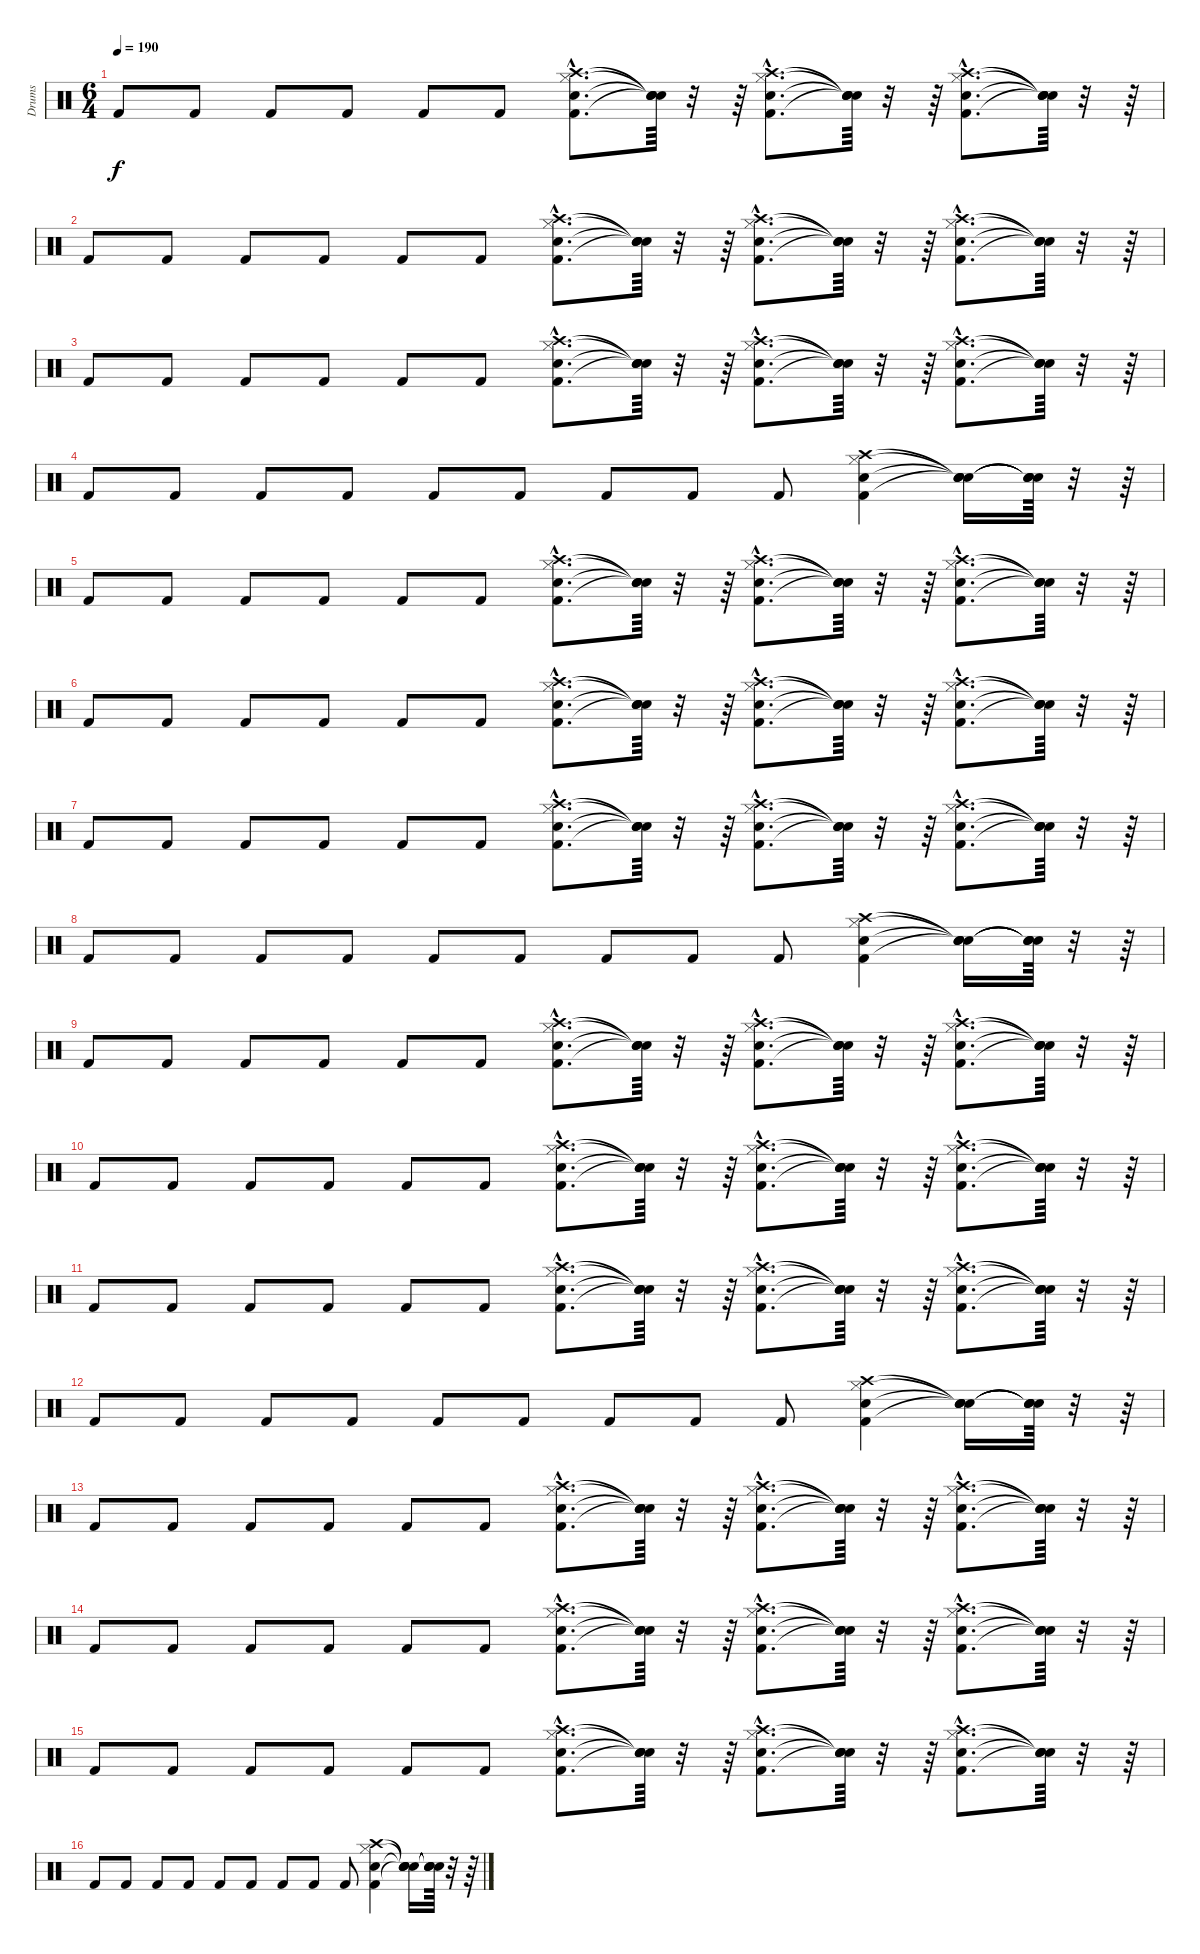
\track ("Drums" "Drums") {instrument percussion}
\staff {score}
\articulation defaults
\ts (6 4)
\tempo 190
\clef neutral
\ks c "Kick (hit) 2".8{dy f} "Kick (hit) 2".8 "Kick (hit) 2".8 "Kick (hit) 2".8 "Kick (hit) 2".8 "Kick (hit) 2".8
("Kick (hit) 2"{hac} "Snare (hit) 2"{hac} "Hi-Hat (closed)"{hac} "Crash high (hit)"{hac}).8{d} ("Snare (hit)"{t} "Snare (hit)"{t} "Snare (hit)"{t} "Snare (hit)"{t}).64 r.32 r.64 ("Kick (hit) 2"{hac} "Snare (hit) 2"{hac} "Hi-Hat (closed)"{hac} "Crash high (hit)"{hac}).8{d} ("Snare (hit)"{t} "Snare (hit)"{t} "Snare (hit)"{t} "Snare (hit)"{t}).64 r.32 r.64 ("Kick (hit) 2"{hac} "Snare (hit) 2"{hac} "Hi-Hat (closed)"{hac} "Crash high (hit)"{hac}).8{d} ("Snare (hit)"{t} "Snare (hit)"{t} "Snare (hit)"{t} "Snare (hit)"{t}).64 r.32 r.64 |
"Kick (hit) 2".8 "Kick (hit) 2".8 "Kick (hit) 2".8 "Kick (hit) 2".8 "Kick (hit) 2".8 "Kick (hit) 2".8 ("Kick (hit) 2"{hac} "Snare (hit) 2"{hac} "Hi-Hat (closed)"{hac} "Crash high (hit)"{hac}).8{d} ("Snare (hit)"{t} "Snare (hit)"{t} "Snare (hit)"{t} "Snare (hit)"{t}).64 r.32 r.64 ("Kick (hit) 2"{hac} "Snare (hit) 2"{hac} "Hi-Hat (closed)"{hac} "Crash high (hit)"{hac}).8{d} ("Snare (hit)"{t} "Snare (hit)"{t} "Snare (hit)"{t} "Snare (hit)"{t}).64 r.32 r.64 ("Kick (hit) 2"{hac} "Snare (hit) 2"{hac} "Hi-Hat (closed)"{hac} "Crash high (hit)"{hac}).8{d} ("Snare (hit)"{t} "Snare (hit)"{t} "Snare (hit)"{t} "Snare (hit)"{t}).64 r.32 r.64 |
"Kick (hit) 2".8 "Kick (hit) 2".8 "Kick (hit) 2".8 "Kick (hit) 2".8 "Kick (hit) 2".8 "Kick (hit) 2".8 ("Kick (hit) 2"{hac} "Snare (hit) 2"{hac} "Hi-Hat (closed)"{hac} "Crash high (hit)"{hac}).8{d} ("Snare (hit)"{t} "Snare (hit)"{t} "Snare (hit)"{t} "Snare (hit)"{t}).64 r.32 r.64 ("Kick (hit) 2"{hac} "Snare (hit) 2"{hac} "Hi-Hat (closed)"{hac} "Crash high (hit)"{hac}).8{d} ("Snare (hit)"{t} "Snare (hit)"{t} "Snare (hit)"{t} "Snare (hit)"{t}).64 r.32 r.64 ("Kick (hit) 2"{hac} "Snare (hit) 2"{hac} "Hi-Hat (closed)"{hac} "Crash high (hit)"{hac}).8{d} ("Snare (hit)"{t} "Snare (hit)"{t} "Snare (hit)"{t} "Snare (hit)"{t}).64 r.32 r.64 |
"Kick (hit) 2".8 "Kick (hit) 2".8 "Kick (hit) 2".8 "Kick (hit) 2".8 "Kick (hit) 2".8 "Kick (hit) 2".8 "Kick (hit) 2".8 "Kick (hit) 2".8 "Kick (hit) 2".8 ("Kick (hit) 2" "Snare (hit) 2" "Hi-Hat (closed)" "Crash high (hit)").4 ("Snare (hit)"{t} "Snare (hit)"{t} "Snare (hit)"{t} "Snare (hit)"{t}).16 ("Snare (hit)"{t} "Snare (hit)"{t} "Snare (hit)"{t} "Snare (hit)"{t}).64 r.32 r.64 |
"Kick (hit) 2".8 "Kick (hit) 2".8 "Kick (hit) 2".8 "Kick (hit) 2".8 "Kick (hit) 2".8 "Kick (hit) 2".8 ("Kick (hit) 2"{hac} "Snare (hit) 2"{hac} "Hi-Hat (closed)"{hac} "Crash high (hit)"{hac}).8{d} ("Snare (hit)"{t} "Snare (hit)"{t} "Snare (hit)"{t} "Snare (hit)"{t}).64 r.32 r.64 ("Kick (hit) 2"{hac} "Snare (hit) 2"{hac} "Hi-Hat (closed)"{hac} "Crash high (hit)"{hac}).8{d} ("Snare (hit)"{t} "Snare (hit)"{t} "Snare (hit)"{t} "Snare (hit)"{t}).64 r.32 r.64 ("Kick (hit) 2"{hac} "Snare (hit) 2"{hac} "Hi-Hat (closed)"{hac} "Crash high (hit)"{hac}).8{d} ("Snare (hit)"{t} "Snare (hit)"{t} "Snare (hit)"{t} "Snare (hit)"{t}).64 r.32 r.64 |
"Kick (hit) 2".8 "Kick (hit) 2".8 "Kick (hit) 2".8 "Kick (hit) 2".8 "Kick (hit) 2".8 "Kick (hit) 2".8 ("Kick (hit) 2"{hac} "Snare (hit) 2"{hac} "Hi-Hat (closed)"{hac} "Crash high (hit)"{hac}).8{d} ("Snare (hit)"{t} "Snare (hit)"{t} "Snare (hit)"{t} "Snare (hit)"{t}).64 r.32 r.64 ("Kick (hit) 2"{hac} "Snare (hit) 2"{hac} "Hi-Hat (closed)"{hac} "Crash high (hit)"{hac}).8{d} ("Snare (hit)"{t} "Snare (hit)"{t} "Snare (hit)"{t} "Snare (hit)"{t}).64 r.32 r.64 ("Kick (hit) 2"{hac} "Snare (hit) 2"{hac} "Hi-Hat (closed)"{hac} "Crash high (hit)"{hac}).8{d} ("Snare (hit)"{t} "Snare (hit)"{t} "Snare (hit)"{t} "Snare (hit)"{t}).64 r.32 r.64 |
"Kick (hit) 2".8 "Kick (hit) 2".8 "Kick (hit) 2".8 "Kick (hit) 2".8 "Kick (hit) 2".8 "Kick (hit) 2".8 ("Kick (hit) 2"{hac} "Snare (hit) 2"{hac} "Hi-Hat (closed)"{hac} "Crash high (hit)"{hac}).8{d} ("Snare (hit)"{t} "Snare (hit)"{t} "Snare (hit)"{t} "Snare (hit)"{t}).64 r.32 r.64 ("Kick (hit) 2"{hac} "Snare (hit) 2"{hac} "Hi-Hat (closed)"{hac} "Crash high (hit)"{hac}).8{d} ("Snare (hit)"{t} "Snare (hit)"{t} "Snare (hit)"{t} "Snare (hit)"{t}).64 r.32 r.64 ("Kick (hit) 2"{hac} "Snare (hit) 2"{hac} "Hi-Hat (closed)"{hac} "Crash high (hit)"{hac}).8{d} ("Snare (hit)"{t} "Snare (hit)"{t} "Snare (hit)"{t} "Snare (hit)"{t}).64 r.32 r.64 |
"Kick (hit) 2".8 "Kick (hit) 2".8 "Kick (hit) 2".8 "Kick (hit) 2".8 "Kick (hit) 2".8 "Kick (hit) 2".8 "Kick (hit) 2".8 "Kick (hit) 2".8 "Kick (hit) 2".8 ("Kick (hit) 2" "Snare (hit) 2" "Hi-Hat (closed)" "Crash high (hit)").4 ("Snare (hit)"{t} "Snare (hit)"{t} "Snare (hit)"{t} "Snare (hit)"{t}).16 ("Snare (hit)"{t} "Snare (hit)"{t} "Snare (hit)"{t} "Snare (hit)"{t}).64 r.32 r.64 |
"Kick (hit) 2".8 "Kick (hit) 2".8 "Kick (hit) 2".8 "Kick (hit) 2".8 "Kick (hit) 2".8 "Kick (hit) 2".8 ("Kick (hit) 2"{hac} "Snare (hit) 2"{hac} "Hi-Hat (closed)"{hac} "Crash high (hit)"{hac}).8{d} ("Snare (hit)"{t} "Snare (hit)"{t} "Snare (hit)"{t} "Snare (hit)"{t}).64 r.32 r.64 ("Kick (hit) 2"{hac} "Snare (hit) 2"{hac} "Hi-Hat (closed)"{hac} "Crash high (hit)"{hac}).8{d} ("Snare (hit)"{t} "Snare (hit)"{t} "Snare (hit)"{t} "Snare (hit)"{t}).64 r.32 r.64 ("Kick (hit) 2"{hac} "Snare (hit) 2"{hac} "Hi-Hat (closed)"{hac} "Crash high (hit)"{hac}).8{d} ("Snare (hit)"{t} "Snare (hit)"{t} "Snare (hit)"{t} "Snare (hit)"{t}).64 r.32 r.64 |
"Kick (hit) 2".8 "Kick (hit) 2".8 "Kick (hit) 2".8 "Kick (hit) 2".8 "Kick (hit) 2".8 "Kick (hit) 2".8 ("Kick (hit) 2"{hac} "Snare (hit) 2"{hac} "Hi-Hat (closed)"{hac} "Crash high (hit)"{hac}).8{d} ("Snare (hit)"{t} "Snare (hit)"{t} "Snare (hit)"{t} "Snare (hit)"{t}).64 r.32 r.64 ("Kick (hit) 2"{hac} "Snare (hit) 2"{hac} "Hi-Hat (closed)"{hac} "Crash high (hit)"{hac}).8{d} ("Snare (hit)"{t} "Snare (hit)"{t} "Snare (hit)"{t} "Snare (hit)"{t}).64 r.32 r.64 ("Kick (hit) 2"{hac} "Snare (hit) 2"{hac} "Hi-Hat (closed)"{hac} "Crash high (hit)"{hac}).8{d} ("Snare (hit)"{t} "Snare (hit)"{t} "Snare (hit)"{t} "Snare (hit)"{t}).64 r.32 r.64 |
"Kick (hit) 2".8 "Kick (hit) 2".8 "Kick (hit) 2".8 "Kick (hit) 2".8 "Kick (hit) 2".8 "Kick (hit) 2".8 ("Kick (hit) 2"{hac} "Snare (hit) 2"{hac} "Hi-Hat (closed)"{hac} "Crash high (hit)"{hac}).8{d} ("Snare (hit)"{t} "Snare (hit)"{t} "Snare (hit)"{t} "Snare (hit)"{t}).64 r.32 r.64 ("Kick (hit) 2"{hac} "Snare (hit) 2"{hac} "Hi-Hat (closed)"{hac} "Crash high (hit)"{hac}).8{d} ("Snare (hit)"{t} "Snare (hit)"{t} "Snare (hit)"{t} "Snare (hit)"{t}).64 r.32 r.64 ("Kick (hit) 2"{hac} "Snare (hit) 2"{hac} "Hi-Hat (closed)"{hac} "Crash high (hit)"{hac}).8{d} ("Snare (hit)"{t} "Snare (hit)"{t} "Snare (hit)"{t} "Snare (hit)"{t}).64 r.32 r.64 |
"Kick (hit) 2".8 "Kick (hit) 2".8 "Kick (hit) 2".8 "Kick (hit) 2".8 "Kick (hit) 2".8 "Kick (hit) 2".8 "Kick (hit) 2".8 "Kick (hit) 2".8 "Kick (hit) 2".8 ("Kick (hit) 2" "Snare (hit) 2" "Hi-Hat (closed)" "Crash high (hit)").4 ("Snare (hit)"{t} "Snare (hit)"{t} "Snare (hit)"{t} "Snare (hit)"{t}).16 ("Snare (hit)"{t} "Snare (hit)"{t} "Snare (hit)"{t} "Snare (hit)"{t}).64 r.32 r.64 |
"Kick (hit) 2".8 "Kick (hit) 2".8 "Kick (hit) 2".8 "Kick (hit) 2".8 "Kick (hit) 2".8 "Kick (hit) 2".8 ("Kick (hit) 2"{hac} "Snare (hit) 2"{hac} "Hi-Hat (closed)"{hac} "Crash high (hit)"{hac}).8{d} ("Snare (hit)"{t} "Snare (hit)"{t} "Snare (hit)"{t} "Snare (hit)"{t}).64 r.32 r.64 ("Kick (hit) 2"{hac} "Snare (hit) 2"{hac} "Hi-Hat (closed)"{hac} "Crash high (hit)"{hac}).8{d} ("Snare (hit)"{t} "Snare (hit)"{t} "Snare (hit)"{t} "Snare (hit)"{t}).64 r.32 r.64 ("Kick (hit) 2"{hac} "Snare (hit) 2"{hac} "Hi-Hat (closed)"{hac} "Crash high (hit)"{hac}).8{d} ("Snare (hit)"{t} "Snare (hit)"{t} "Snare (hit)"{t} "Snare (hit)"{t}).64 r.32 r.64 |
"Kick (hit) 2".8 "Kick (hit) 2".8 "Kick (hit) 2".8 "Kick (hit) 2".8 "Kick (hit) 2".8 "Kick (hit) 2".8 ("Kick (hit) 2"{hac} "Snare (hit) 2"{hac} "Hi-Hat (closed)"{hac} "Crash high (hit)"{hac}).8{d} ("Snare (hit)"{t} "Snare (hit)"{t} "Snare (hit)"{t} "Snare (hit)"{t}).64 r.32 r.64 ("Kick (hit) 2"{hac} "Snare (hit) 2"{hac} "Hi-Hat (closed)"{hac} "Crash high (hit)"{hac}).8{d} ("Snare (hit)"{t} "Snare (hit)"{t} "Snare (hit)"{t} "Snare (hit)"{t}).64 r.32 r.64 ("Kick (hit) 2"{hac} "Snare (hit) 2"{hac} "Hi-Hat (closed)"{hac} "Crash high (hit)"{hac}).8{d} ("Snare (hit)"{t} "Snare (hit)"{t} "Snare (hit)"{t} "Snare (hit)"{t}).64 r.32 r.64 |
"Kick (hit) 2".8 "Kick (hit) 2".8 "Kick (hit) 2".8 "Kick (hit) 2".8 "Kick (hit) 2".8 "Kick (hit) 2".8 ("Kick (hit) 2"{hac} "Snare (hit) 2"{hac} "Hi-Hat (closed)"{hac} "Crash high (hit)"{hac}).8{d} ("Snare (hit)"{t} "Snare (hit)"{t} "Snare (hit)"{t} "Snare (hit)"{t}).64 r.32 r.64 ("Kick (hit) 2"{hac} "Snare (hit) 2"{hac} "Hi-Hat (closed)"{hac} "Crash high (hit)"{hac}).8{d} ("Snare (hit)"{t} "Snare (hit)"{t} "Snare (hit)"{t} "Snare (hit)"{t}).64 r.32 r.64 ("Kick (hit) 2"{hac} "Snare (hit) 2"{hac} "Hi-Hat (closed)"{hac} "Crash high (hit)"{hac}).8{d} ("Snare (hit)"{t} "Snare (hit)"{t} "Snare (hit)"{t} "Snare (hit)"{t}).64 r.32 r.64 |
"Kick (hit) 2".8 "Kick (hit) 2".8 "Kick (hit) 2".8 "Kick (hit) 2".8 "Kick (hit) 2".8 "Kick (hit) 2".8 "Kick (hit) 2".8 "Kick (hit) 2".8 "Kick (hit) 2".8 ("Kick (hit) 2" "Snare (hit) 2" "Hi-Hat (closed)" "Crash high (hit)").4 ("Snare (hit)"{t} "Snare (hit)"{t} "Snare (hit)"{t} "Snare (hit)"{t}).16 ("Snare (hit)"{t} "Snare (hit)"{t} "Snare (hit)"{t} "Snare (hit)"{t}).64 r.32 r.64
